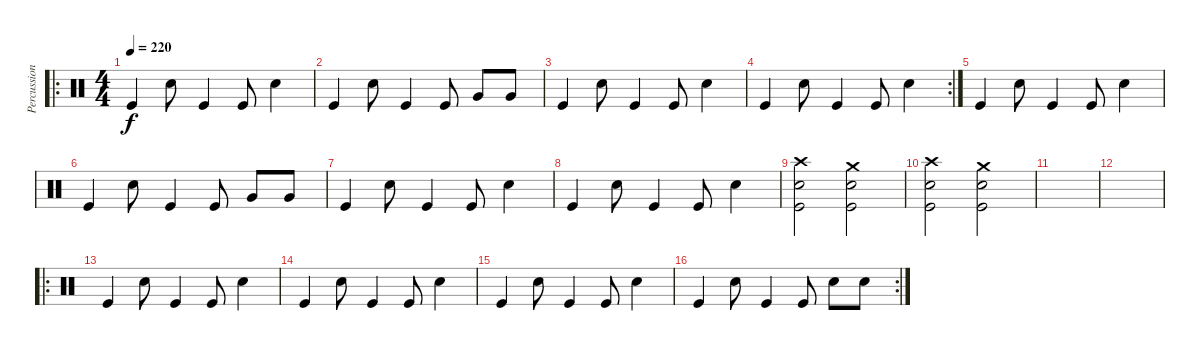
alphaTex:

\track ("Percussion" "Percussion") {instrument percussion}
\staff {score}
\articulation defaults
\ro
\ts (4 4)
\tempo 220
\clef neutral
\ks c "Kick (hit)".4{dy f} "Snare (hit) 2".8 "Kick (hit)".4 "Kick (hit)".8 "Snare (hit) 2".4
|
"Kick (hit)".4 "Snare (hit) 2".8 "Kick (hit)".4 "Kick (hit)".8 "Very Low Tom (hit)".8 "Very Low Tom (hit)".8 |
"Kick (hit)".4 "Snare (hit) 2".8 "Kick (hit)".4 "Kick (hit)".8 "Snare (hit) 2".4 |
\rc 2 "Kick (hit)".4 "Snare (hit) 2".8 "Kick (hit)".4 "Kick (hit)".8 "Snare (hit) 2".4
|
"Kick (hit)".4 "Snare (hit) 2".8 "Kick (hit)".4 "Kick (hit)".8 "Snare (hit) 2".4 |
"Kick (hit)".4 "Snare (hit) 2".8 "Kick (hit)".4 "Kick (hit)".8 "Very Low Tom (hit)".8 "Very Low Tom (hit)".8 |
"Kick (hit)".4 "Snare (hit) 2".8 "Kick (hit)".4 "Kick (hit)".8 "Snare (hit) 2".4 |
"Kick (hit)".4 "Snare (hit) 2".8 "Kick (hit)".4 "Kick (hit)".8 "Snare (hit) 2".4 |
("Crash high (hit)" "Kick (hit)" "Snare (hit) 2").2 ("Crash medium (hit)" "Kick (hit)" "Snare (hit) 2").2 |
("Crash high (hit)" "Kick (hit)" "Snare (hit) 2").2 ("Crash medium (hit)" "Kick (hit)" "Snare (hit) 2").2 |
|
|
\ro "Kick (hit)".4 "Snare (hit) 2".8 "Kick (hit)".4 "Kick (hit)".8 "Snare (hit) 2".4
|
"Kick (hit)".4 "Snare (hit) 2".8 "Kick (hit)".4 "Kick (hit)".8 "Snare (hit) 2".4 |
"Kick (hit)".4 "Snare (hit) 2".8 "Kick (hit)".4 "Kick (hit)".8 "Snare (hit) 2".4 |
\rc 2 "Kick (hit)".4 "Snare (hit) 2".8 "Kick (hit)".4 "Kick (hit)".8 "Snare (hit) 2".8 "Snare (hit) 2".8
